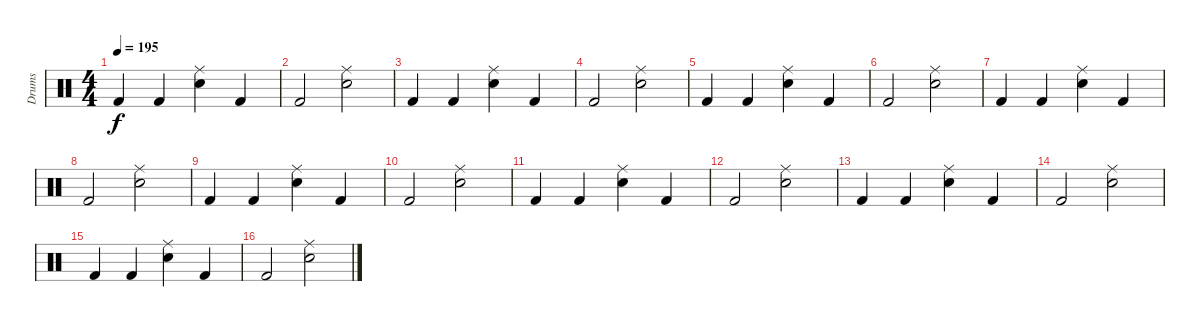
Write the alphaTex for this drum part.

\track ("Drums" "Drums") {instrument percussion}
\staff {score}
\articulation defaults
\ts (4 4)
\tempo 195
\clef neutral
\ks c "Kick (hit) 2".4{dy f} "Kick (hit) 2".4
("Ride (middle)" "Snare (hit) 2").4 "Kick (hit) 2".4 |
"Kick (hit) 2".2 ("Ride (middle)" "Snare (hit) 2").2 |
"Kick (hit) 2".4 "Kick (hit) 2".4 ("Ride (middle)" "Snare (hit) 2").4 "Kick (hit) 2".4 |
"Kick (hit) 2".2 ("Ride (middle)" "Snare (hit) 2").2 |
"Kick (hit) 2".4 "Kick (hit) 2".4 ("Ride (middle)" "Snare (hit) 2").4 "Kick (hit) 2".4 |
"Kick (hit) 2".2 ("Ride (middle)" "Snare (hit) 2").2 |
"Kick (hit) 2".4 "Kick (hit) 2".4 ("Ride (middle)" "Snare (hit) 2").4 "Kick (hit) 2".4 |
"Kick (hit) 2".2 ("Ride (middle)" "Snare (hit) 2").2 |
"Kick (hit) 2".4 "Kick (hit) 2".4 ("Ride (middle)" "Snare (hit) 2").4 "Kick (hit) 2".4 |
"Kick (hit) 2".2 ("Ride (middle)" "Snare (hit) 2").2 |
"Kick (hit) 2".4 "Kick (hit) 2".4 ("Ride (middle)" "Snare (hit) 2").4 "Kick (hit) 2".4 |
"Kick (hit) 2".2 ("Ride (middle)" "Snare (hit) 2").2 |
"Kick (hit) 2".4 "Kick (hit) 2".4 ("Ride (middle)" "Snare (hit) 2").4 "Kick (hit) 2".4 |
"Kick (hit) 2".2 ("Ride (middle)" "Snare (hit) 2").2 |
"Kick (hit) 2".4 "Kick (hit) 2".4 ("Ride (middle)" "Snare (hit) 2").4 "Kick (hit) 2".4 |
"Kick (hit) 2".2 ("Ride (middle)" "Snare (hit) 2").2
